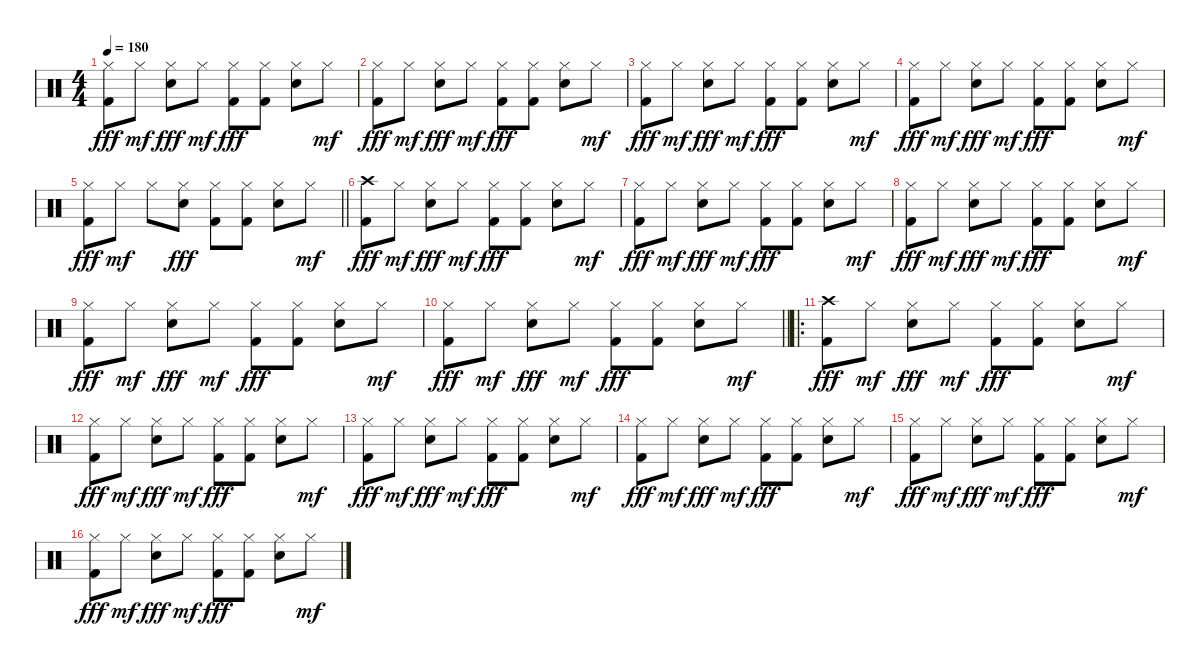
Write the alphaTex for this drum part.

\track "" {instrument percussion}
\staff {score}
\articulation defaults
\ts (4 4)
\tempo 180
\clef neutral
\ks c
("Hi-Hat (closed)" "Kick (hit) 2").8{dy fff} "Hi-Hat (closed)".8{dy mf} ("Hi-Hat (closed)" "Snare (hit) 2").8{dy fff} "Hi-Hat (closed)".8{dy mf} ("Hi-Hat (closed)" "Kick (hit) 2").8{dy fff} ("Hi-Hat (closed)" "Kick (hit) 2").8 ("Hi-Hat (closed)" "Snare (hit) 2").8 "Hi-Hat (closed)".8{dy mf} |
("Hi-Hat (closed)" "Kick (hit) 2").8{dy fff} "Hi-Hat (closed)".8{dy mf} ("Hi-Hat (closed)" "Snare (hit) 2").8{dy fff} "Hi-Hat (closed)".8{dy mf} ("Hi-Hat (closed)" "Kick (hit) 2").8{dy fff} ("Hi-Hat (closed)" "Kick (hit) 2").8 ("Hi-Hat (closed)" "Snare (hit) 2").8 "Hi-Hat (closed)".8{dy mf} |
("Hi-Hat (closed)" "Kick (hit) 2").8{dy fff} "Hi-Hat (closed)".8{dy mf} ("Hi-Hat (closed)" "Snare (hit) 2").8{dy fff} "Hi-Hat (closed)".8{dy mf} ("Hi-Hat (closed)" "Kick (hit) 2").8{dy fff} ("Hi-Hat (closed)" "Kick (hit) 2").8 ("Hi-Hat (closed)" "Snare (hit) 2").8 "Hi-Hat (closed)".8{dy mf} |
("Hi-Hat (closed)" "Kick (hit) 2").8{dy fff} "Hi-Hat (closed)".8{dy mf} ("Hi-Hat (closed)" "Snare (hit) 2").8{dy fff} "Hi-Hat (closed)".8{dy mf} ("Hi-Hat (closed)" "Kick (hit) 2").8{dy fff} ("Hi-Hat (closed)" "Kick (hit) 2").8 ("Hi-Hat (closed)" "Snare (hit) 2").8 "Hi-Hat (closed)".8{dy mf} |
\barLineRight lightlight
("Hi-Hat (closed)" "Kick (hit) 2").8{dy fff} "Hi-Hat (closed)".8{dy mf} "Hi-Hat (closed)".8 ("Hi-Hat (closed)" "Snare (hit) 2").8{dy fff} ("Hi-Hat (closed)" "Kick (hit) 2").8 ("Hi-Hat (closed)" "Kick (hit) 2").8 ("Hi-Hat (closed)" "Snare (hit) 2").8 "Hi-Hat (closed)".8{dy mf} |
\section ("" "")
("Crash high (hit)" "Kick (hit) 2").8{dy fff} "Hi-Hat (closed)".8{dy mf} ("Hi-Hat (closed)" "Snare (hit) 2").8{dy fff} "Hi-Hat (closed)".8{dy mf} ("Hi-Hat (closed)" "Kick (hit) 2").8{dy fff} ("Hi-Hat (closed)" "Kick (hit) 2").8 ("Hi-Hat (closed)" "Snare (hit) 2").8 "Hi-Hat (closed)".8{dy mf} |
("Hi-Hat (closed)" "Kick (hit) 2").8{dy fff} "Hi-Hat (closed)".8{dy mf} ("Hi-Hat (closed)" "Snare (hit) 2").8{dy fff} "Hi-Hat (closed)".8{dy mf} ("Hi-Hat (closed)" "Kick (hit) 2").8{dy fff} ("Hi-Hat (closed)" "Kick (hit) 2").8 ("Hi-Hat (closed)" "Snare (hit) 2").8 "Hi-Hat (closed)".8{dy mf} |
("Hi-Hat (closed)" "Kick (hit) 2").8{dy fff} "Hi-Hat (closed)".8{dy mf} ("Hi-Hat (closed)" "Snare (hit) 2").8{dy fff} "Hi-Hat (closed)".8{dy mf} ("Hi-Hat (closed)" "Kick (hit) 2").8{dy fff} ("Hi-Hat (closed)" "Kick (hit) 2").8 ("Hi-Hat (closed)" "Snare (hit) 2").8 "Hi-Hat (closed)".8{dy mf} |
("Hi-Hat (closed)" "Kick (hit) 2").8{dy fff} "Hi-Hat (closed)".8{dy mf} ("Hi-Hat (closed)" "Snare (hit) 2").8{dy fff} "Hi-Hat (closed)".8{dy mf} ("Hi-Hat (closed)" "Kick (hit) 2").8{dy fff} ("Hi-Hat (closed)" "Kick (hit) 2").8 ("Hi-Hat (closed)" "Snare (hit) 2").8 "Hi-Hat (closed)".8{dy mf} |
\barLineRight lightlight
("Hi-Hat (closed)" "Kick (hit) 2").8{dy fff} "Hi-Hat (closed)".8{dy mf} ("Hi-Hat (closed)" "Snare (hit) 2").8{dy fff} "Hi-Hat (closed)".8{dy mf} ("Hi-Hat (closed)" "Kick (hit) 2").8{dy fff} ("Hi-Hat (closed)" "Kick (hit) 2").8 ("Hi-Hat (closed)" "Snare (hit) 2").8 "Hi-Hat (closed)".8{dy mf} |
\ro
\section ("" "")
("Crash high (hit)" "Kick (hit) 2").8{dy fff} "Hi-Hat (closed)".8{dy mf} ("Hi-Hat (closed)" "Snare (hit) 2").8{dy fff} "Hi-Hat (closed)".8{dy mf} ("Hi-Hat (closed)" "Kick (hit) 2").8{dy fff} ("Hi-Hat (closed)" "Kick (hit) 2").8 ("Hi-Hat (closed)" "Snare (hit) 2").8 "Hi-Hat (closed)".8{dy mf} |
("Hi-Hat (closed)" "Kick (hit) 2").8{dy fff} "Hi-Hat (closed)".8{dy mf} ("Hi-Hat (closed)" "Snare (hit) 2").8{dy fff} "Hi-Hat (closed)".8{dy mf} ("Hi-Hat (closed)" "Kick (hit) 2").8{dy fff} ("Hi-Hat (closed)" "Kick (hit) 2").8 ("Hi-Hat (closed)" "Snare (hit) 2").8 "Hi-Hat (closed)".8{dy mf} |
("Hi-Hat (closed)" "Kick (hit) 2").8{dy fff} "Hi-Hat (closed)".8{dy mf} ("Hi-Hat (closed)" "Snare (hit) 2").8{dy fff} "Hi-Hat (closed)".8{dy mf} ("Hi-Hat (closed)" "Kick (hit) 2").8{dy fff} ("Hi-Hat (closed)" "Kick (hit) 2").8 ("Hi-Hat (closed)" "Snare (hit) 2").8 "Hi-Hat (closed)".8{dy mf} |
("Hi-Hat (closed)" "Kick (hit) 2").8{dy fff} "Hi-Hat (closed)".8{dy mf} ("Hi-Hat (closed)" "Snare (hit) 2").8{dy fff} "Hi-Hat (closed)".8{dy mf} ("Hi-Hat (closed)" "Kick (hit) 2").8{dy fff} ("Hi-Hat (closed)" "Kick (hit) 2").8 ("Hi-Hat (closed)" "Snare (hit) 2").8 "Hi-Hat (closed)".8{dy mf} |
("Hi-Hat (closed)" "Kick (hit) 2").8{dy fff} "Hi-Hat (closed)".8{dy mf} ("Hi-Hat (closed)" "Snare (hit) 2").8{dy fff} "Hi-Hat (closed)".8{dy mf} ("Hi-Hat (closed)" "Kick (hit) 2").8{dy fff} ("Hi-Hat (closed)" "Kick (hit) 2").8 ("Hi-Hat (closed)" "Snare (hit) 2").8 "Hi-Hat (closed)".8{dy mf} |
("Hi-Hat (closed)" "Kick (hit) 2").8{dy fff} "Hi-Hat (closed)".8{dy mf} ("Hi-Hat (closed)" "Snare (hit) 2").8{dy fff} "Hi-Hat (closed)".8{dy mf} ("Hi-Hat (closed)" "Kick (hit) 2").8{dy fff} ("Hi-Hat (closed)" "Kick (hit) 2").8 ("Hi-Hat (closed)" "Snare (hit) 2").8 "Hi-Hat (closed)".8{dy mf}
